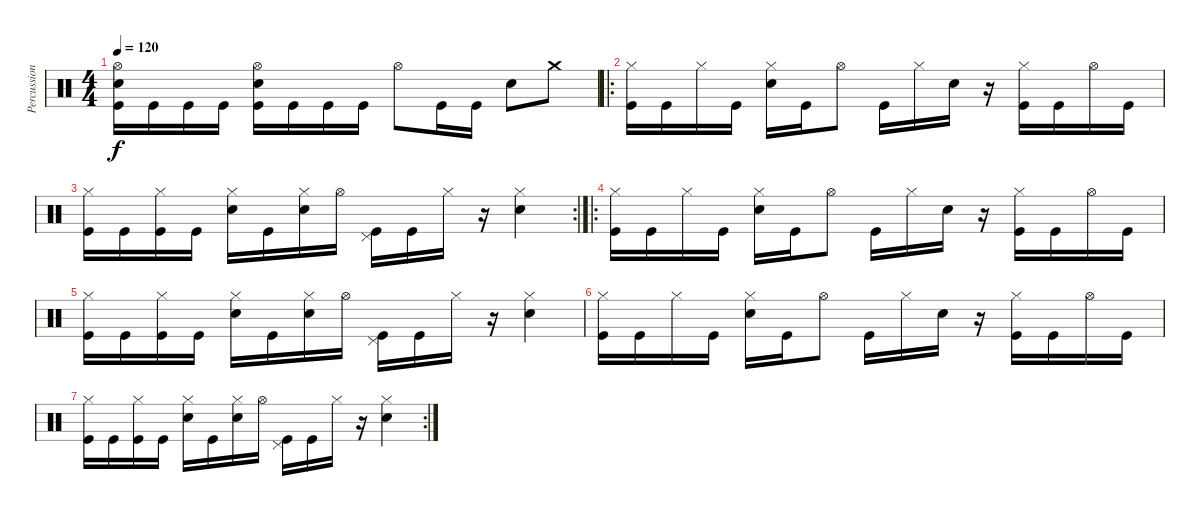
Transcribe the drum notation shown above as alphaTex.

\track ("Percussion" "Percussion") {instrument percussion}
\staff {score}
\articulation defaults
\ts (4 4)
\tempo 120
\clef neutral
\ks c
("Hi-Hat (open)" "Snare (hit) 2" "Kick (hit)").16{dy f} "Kick (hit)".16 "Kick (hit)".16 "Kick (hit)".16 ("Hi-Hat (open)" "Snare (hit) 2" "Kick (hit)").16 "Kick (hit)".16 "Kick (hit)".16 "Kick (hit)".16 "Hi-Hat (open)".8 "Kick (hit)".16 "Kick (hit)".16 "Snare (hit) 2".8 "Crash medium (hit)".8 |
\ro
("Hi-Hat (closed)" "Kick (hit)").16 "Kick (hit)".16 "Hi-Hat (closed)".16 "Kick (hit)".16 ("Hi-Hat (closed)" "Snare (hit) 2").16 "Kick (hit)".16 "Hi-Hat (open)".8 "Kick (hit)".16 "Hi-Hat (closed)".16 "Snare (hit) 2".16 r.16 ("Hi-Hat (closed)" "Kick (hit)").16 "Kick (hit)".16 "Hi-Hat (open)".16 "Kick (hit)".16 |
\rc 2
("Hi-Hat (closed)" "Kick (hit)").16 "Kick (hit)".16 ("Hi-Hat (closed)" "Kick (hit)").16 "Kick (hit)".16 ("Hi-Hat (closed)" "Snare (hit) 2").16 "Kick (hit)".16 ("Hi-Hat (closed)" "Snare (hit) 2").16 "Hi-Hat (open)".16 ("Pedal Hi-Hat (hit)" "Kick (hit)").16 "Kick (hit)".16 "Hi-Hat (closed)".16 r.16 ("Hi-Hat (closed)" "Snare (hit) 2").4 |
\ro
("Hi-Hat (closed)" "Kick (hit)").16 "Kick (hit)".16 "Hi-Hat (closed)".16 "Kick (hit)".16 ("Hi-Hat (closed)" "Snare (hit) 2").16 "Kick (hit)".16 "Hi-Hat (open)".8 "Kick (hit)".16 "Hi-Hat (closed)".16 "Snare (hit) 2".16 r.16 ("Hi-Hat (closed)" "Kick (hit)").16 "Kick (hit)".16 "Hi-Hat (open)".16 "Kick (hit)".16 |
("Hi-Hat (closed)" "Kick (hit)").16 "Kick (hit)".16 ("Hi-Hat (closed)" "Kick (hit)").16 "Kick (hit)".16 ("Hi-Hat (closed)" "Snare (hit) 2").16 "Kick (hit)".16 ("Hi-Hat (closed)" "Snare (hit) 2").16 "Hi-Hat (open)".16 ("Pedal Hi-Hat (hit)" "Kick (hit)").16 "Kick (hit)".16 "Hi-Hat (closed)".16 r.16 ("Hi-Hat (closed)" "Snare (hit) 2").4 |
("Hi-Hat (closed)" "Kick (hit)").16 "Kick (hit)".16 "Hi-Hat (closed)".16 "Kick (hit)".16 ("Hi-Hat (closed)" "Snare (hit) 2").16 "Kick (hit)".16 "Hi-Hat (open)".8 "Kick (hit)".16 "Hi-Hat (closed)".16 "Snare (hit) 2".16 r.16 ("Hi-Hat (closed)" "Kick (hit)").16 "Kick (hit)".16 "Hi-Hat (open)".16 "Kick (hit)".16 |
\rc 2
("Hi-Hat (closed)" "Kick (hit)").16 "Kick (hit)".16 ("Hi-Hat (closed)" "Kick (hit)").16 "Kick (hit)".16 ("Hi-Hat (closed)" "Snare (hit) 2").16 "Kick (hit)".16 ("Hi-Hat (closed)" "Snare (hit) 2").16 "Hi-Hat (open)".16 ("Pedal Hi-Hat (hit)" "Kick (hit)").16 "Kick (hit)".16 "Hi-Hat (closed)".16 r.16 ("Hi-Hat (closed)" "Snare (hit) 2").4
